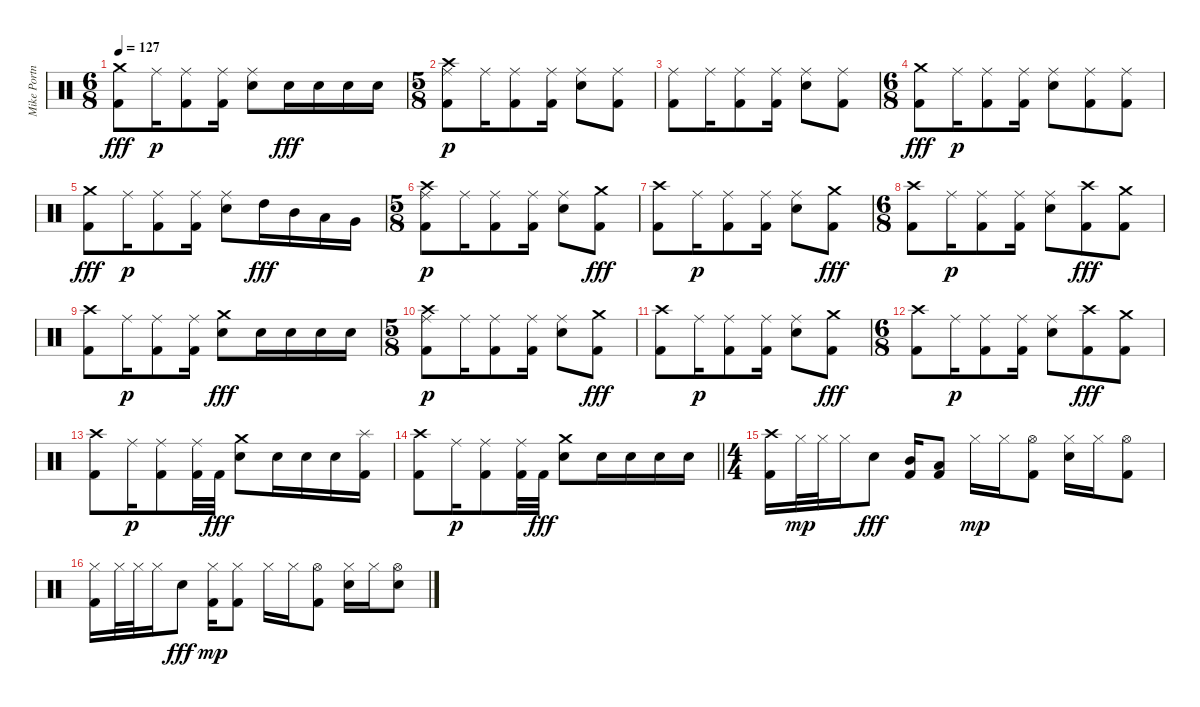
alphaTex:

\track ("Mike Portnoy" "Mike Portn") {instrument percussion}
\staff {score}
\articulation defaults
\ts (6 8)
\tempo 127
\clef neutral
\ks c
("Kick (hit) 2" "Crash medium (hit)").8{dy fff} "Ride (middle)".16{dy p} ("Kick (hit) 2" "Ride (middle)").8 ("Kick (hit) 2" "Ride (middle)").16 ("Electric Snare (hit)" "Ride (middle)").8 "Electric Snare (hit)".16{dy fff} "Electric Snare (hit)".16 "Electric Snare (hit)".16 "Electric Snare (hit)".16 |
\ts (5 8)
("Kick (hit) 2" "Ride (middle)" "Crash high (hit)").8{dy p} "Ride (middle)".16 ("Kick (hit) 2" "Ride (middle)").8 ("Kick (hit) 2" "Ride (middle)").16 ("Electric Snare (hit)" "Ride (middle)").8 ("Kick (hit) 2" "Ride (middle)").8 |
("Kick (hit) 2" "Ride (middle)").8 "Ride (middle)".16 ("Kick (hit) 2" "Ride (middle)").8 ("Kick (hit) 2" "Ride (middle)").16 ("Electric Snare (hit)" "Ride (middle)").8 ("Kick (hit) 2" "Ride (middle)").8 |
\ts (6 8)
("Kick (hit) 2" "Crash medium (hit)").8{dy fff} "Ride (middle)".16{dy p} ("Kick (hit) 2" "Ride (middle)").8 ("Kick (hit) 2" "Ride (middle)").16 ("Electric Snare (hit)" "Ride (middle)").8 ("Kick (hit) 2" "Ride (middle)").8 ("Kick (hit) 2" "Ride (middle)").8 |
("Kick (hit) 2" "Crash medium (hit)").8{dy fff} "Ride (middle)".16{dy p} ("Kick (hit) 2" "Ride (middle)").8 ("Kick (hit) 2" "Ride (middle)").16 ("Electric Snare (hit)" "Ride (middle)").8 "High Tom (hit)".16{dy fff} "Mid Tom (hit)".16 "Low Tom (hit)".16 "Very Low Tom (hit)".16 |
\ts (5 8)
("Kick (hit) 2" "Ride (middle)" "Crash high (hit)").8{dy p} "Ride (middle)".16 ("Kick (hit) 2" "Ride (middle)").8 ("Kick (hit) 2" "Ride (middle)").16 ("Electric Snare (hit)" "Ride (middle)").8 ("Kick (hit) 2" "Crash medium (hit)").8{dy fff} |
("Kick (hit) 2" "Crash high (hit)").8 "Ride (middle)".16{dy p} ("Kick (hit) 2" "Ride (middle)").8 ("Kick (hit) 2" "Ride (middle)").16 ("Electric Snare (hit)" "Ride (middle)").8 ("Kick (hit) 2" "Crash medium (hit)").8{dy fff} |
\ts (6 8)
("Kick (hit) 2" "Crash high (hit)").8 "Ride (middle)".16{dy p} ("Kick (hit) 2" "Ride (middle)").8 ("Kick (hit) 2" "Ride (middle)").16 ("Electric Snare (hit)" "Ride (middle)").8 ("Kick (hit) 2" "Crash high (hit)").8{dy fff} ("Kick (hit) 2" "Crash medium (hit)").8 |
("Kick (hit) 2" "Crash high (hit)").8 "Ride (middle)".16{dy p} ("Kick (hit) 2" "Ride (middle)").8 ("Kick (hit) 2" "Ride (middle)").16 ("Electric Snare (hit)" "Crash medium (hit)").8{dy fff} "Electric Snare (hit)".16 "Electric Snare (hit)".16 "Electric Snare (hit)".16 "Electric Snare (hit)".16 |
\ts (5 8)
("Kick (hit) 2" "Ride (middle)" "Crash high (hit)").8{dy p} "Ride (middle)".16 ("Kick (hit) 2" "Ride (middle)").8 ("Kick (hit) 2" "Ride (middle)").16 ("Electric Snare (hit)" "Ride (middle)").8 ("Kick (hit) 2" "Crash medium (hit)").8{dy fff} |
("Kick (hit) 2" "Crash high (hit)").8 "Ride (middle)".16{dy p} ("Kick (hit) 2" "Ride (middle)").8 ("Kick (hit) 2" "Ride (middle)").16 ("Electric Snare (hit)" "Ride (middle)").8 ("Kick (hit) 2" "Crash medium (hit)").8{dy fff} |
\ts (6 8)
("Kick (hit) 2" "Crash high (hit)").8 "Ride (middle)".16{dy p} ("Kick (hit) 2" "Ride (middle)").8 ("Kick (hit) 2" "Ride (middle)").16 ("Electric Snare (hit)" "Ride (middle)").8 ("Kick (hit) 2" "Crash high (hit)").8{dy fff} ("Kick (hit) 2" "Crash medium (hit)").8 |
("Kick (hit) 2" "Crash high (hit)").8 "Ride (middle)".16{dy p} ("Kick (hit) 2" "Ride (middle)").8 ("Kick (hit) 2" "Ride (middle)").32 "Kick (hit) 2".32{dy fff} ("Electric Snare (hit)" "Crash medium (hit)").8 "Electric Snare (hit)".16 "Electric Snare (hit)".16 "Electric Snare (hit)".16 ("Kick (hit) 2" "Splash (hit)").16 |
\barLineRight lightlight
("Kick (hit) 2" "Crash high (hit)").8 "Ride (middle)".16{dy p} ("Kick (hit) 2" "Ride (middle)").8 ("Kick (hit) 2" "Ride (middle)").32 "Kick (hit) 2".32{dy fff} ("Electric Snare (hit)" "Crash medium (hit)").8 "Electric Snare (hit)".16 "Electric Snare (hit)".16 "Electric Snare (hit)".16 "Electric Snare (hit)".16 |
\ts (4 4)
("Kick (hit) 2" "Crash high (hit)").16 "Hi-Hat (closed)".32{dy mp} "Hi-Hat (closed)".32 "Hi-Hat (closed)".16 "Electric Snare (hit)".8{dy fff} ("Kick (hit) 2" "Mid Tom (hit)").16 ("Kick (hit) 2" "Low Tom (hit)").8 "Hi-Hat (closed)".16{dy mp} "Hi-Hat (closed)".16 ("Kick (hit) 2" "Hi-Hat (open)").8 ("Electric Snare (hit)" "Hi-Hat (closed)").16 "Hi-Hat (closed)".16 ("Kick (hit) 2" "Hi-Hat (open)").8 |
("Kick (hit) 2" "Hi-Hat (closed)").16 "Hi-Hat (closed)".32 "Hi-Hat (closed)".32 "Hi-Hat (closed)".16 "Electric Snare (hit)".8{dy fff} ("Kick (hit) 2" "Hi-Hat (closed)").16{dy mp} ("Kick (hit) 2" "Hi-Hat (closed)").8 "Hi-Hat (closed)".16 "Hi-Hat (closed)".16 ("Kick (hit) 2" "Hi-Hat (open)").8 ("Electric Snare (hit)" "Hi-Hat (closed)").16 "Hi-Hat (closed)".16 ("Electric Snare (hit)" "Hi-Hat (open)").8
